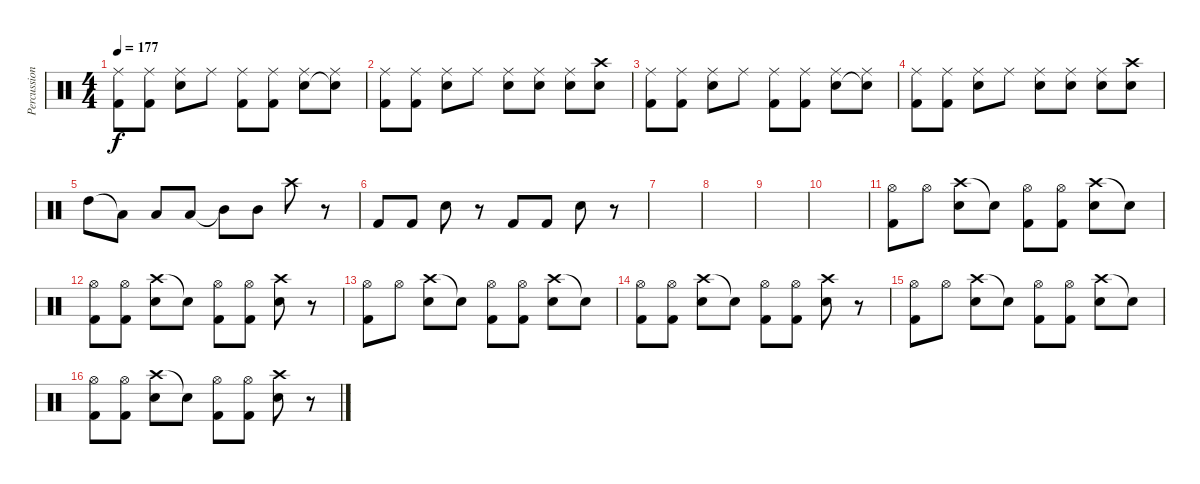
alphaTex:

\track ("Percussion" "Percussion") {instrument percussion}
\staff {score}
\articulation defaults
\ts (4 4)
\tempo 177
\clef neutral
\ks c
("Ride (middle)" "Kick (hit) 2").8{dy f} ("Ride (middle)" "Kick (hit) 2").8 ("Ride (middle)" "Electric Snare (hit)").8 "Ride (middle)".8 ("Ride (middle)" "Kick (hit) 2").8 ("Ride (middle)" "Kick (hit) 2").8 ("Ride (middle)" "Electric Snare (hit)").8 ("Ride (middle)" "Snare (hit)"{t}).8 |
("Ride (middle)" "Kick (hit) 2").8 ("Ride (middle)" "Kick (hit) 2").8 ("Ride (middle)" "Electric Snare (hit)").8 "Ride (middle)".8 ("Ride (middle)" "Electric Snare (hit)").8 ("Ride (middle)" "Electric Snare (hit)").8 ("Ride (middle)" "Electric Snare (hit)").8 ("Crash high (hit)" "Electric Snare (hit)").8 |
("Ride (middle)" "Kick (hit) 2").8 ("Ride (middle)" "Kick (hit) 2").8 ("Ride (middle)" "Electric Snare (hit)").8 "Ride (middle)".8 ("Ride (middle)" "Kick (hit) 2").8 ("Ride (middle)" "Kick (hit) 2").8 ("Ride (middle)" "Electric Snare (hit)").8 ("Ride (middle)" "Snare (hit)"{t}).8 |
("Ride (middle)" "Kick (hit) 2").8 ("Ride (middle)" "Kick (hit) 2").8 ("Ride (middle)" "Electric Snare (hit)").8 "Ride (middle)".8 ("Ride (middle)" "Electric Snare (hit)").8 ("Ride (middle)" "Electric Snare (hit)").8 ("Ride (middle)" "Electric Snare (hit)").8 ("Crash high (hit)" "Electric Snare (hit)").8 |
"High Tom (hit)".8 "Low Tom (hit)"{t}.8 "Low Tom (hit)".8 "Low Tom (hit)".8 "Mid Tom (hit)"{t}.8 "Mid Tom (hit)".8 "Crash high (hit)".8 r.8 |
"Kick (hit) 2".8 "Kick (hit) 2".8 "Electric Snare (hit)".8 r.8 "Kick (hit) 2".8 "Kick (hit) 2".8 "Electric Snare (hit)".8 r.8 |
|
|
|
|
("Hi-Hat (open)" "Kick (hit) 2").8 "Hi-Hat (open)".8 ("Crash high (hit)" "Electric Snare (hit)").8 "Snare (hit)"{t}.8 ("Hi-Hat (open)" "Kick (hit) 2").8 ("Hi-Hat (open)" "Kick (hit) 2").8 ("Crash high (hit)" "Electric Snare (hit)").8 "Snare (hit)"{t}.8 |
("Hi-Hat (open)" "Kick (hit) 2").8 ("Hi-Hat (open)" "Kick (hit) 2").8 ("Crash high (hit)" "Electric Snare (hit)").8 "Snare (hit)"{t}.8 ("Hi-Hat (open)" "Kick (hit) 2").8 ("Hi-Hat (open)" "Kick (hit) 2").8 ("Crash high (hit)" "Electric Snare (hit)").8 r.8 |
("Hi-Hat (open)" "Kick (hit) 2").8 "Hi-Hat (open)".8 ("Crash high (hit)" "Electric Snare (hit)").8 "Snare (hit)"{t}.8 ("Hi-Hat (open)" "Kick (hit) 2").8 ("Hi-Hat (open)" "Kick (hit) 2").8 ("Crash high (hit)" "Electric Snare (hit)").8 "Snare (hit)"{t}.8 |
("Hi-Hat (open)" "Kick (hit) 2").8 ("Hi-Hat (open)" "Kick (hit) 2").8 ("Crash high (hit)" "Electric Snare (hit)").8 "Snare (hit)"{t}.8 ("Hi-Hat (open)" "Kick (hit) 2").8 ("Hi-Hat (open)" "Kick (hit) 2").8 ("Crash high (hit)" "Electric Snare (hit)").8 r.8 |
("Hi-Hat (open)" "Kick (hit) 2").8 "Hi-Hat (open)".8 ("Crash high (hit)" "Electric Snare (hit)").8 "Snare (hit)"{t}.8 ("Hi-Hat (open)" "Kick (hit) 2").8 ("Hi-Hat (open)" "Kick (hit) 2").8 ("Crash high (hit)" "Electric Snare (hit)").8 "Snare (hit)"{t}.8 |
("Hi-Hat (open)" "Kick (hit) 2").8 ("Hi-Hat (open)" "Kick (hit) 2").8 ("Crash high (hit)" "Electric Snare (hit)").8 "Snare (hit)"{t}.8 ("Hi-Hat (open)" "Kick (hit) 2").8 ("Hi-Hat (open)" "Kick (hit) 2").8 ("Crash high (hit)" "Electric Snare (hit)").8 r.8
